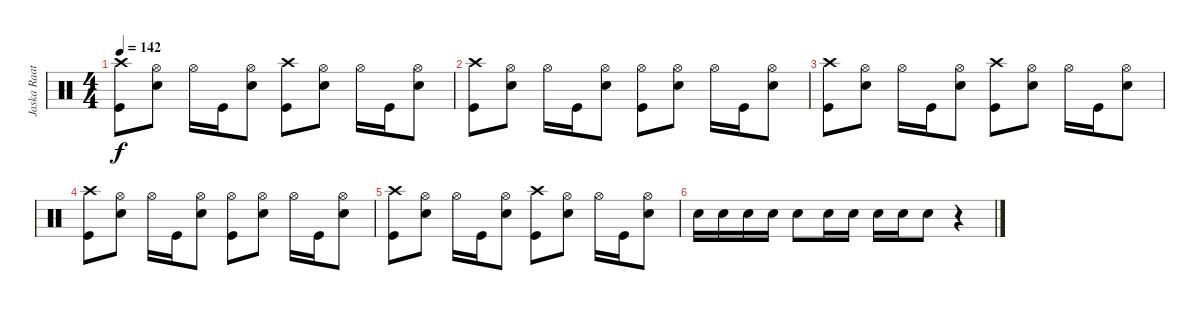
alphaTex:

\track ("Jaska Raatikainen" "Jaska Raat") {instrument percussion}
\staff {score}
\articulation defaults
\ts (4 4)
\tempo 142
\clef neutral
\ks c
("Crash high (hit)" "Kick (hit)").8{dy f} ("Hi-Hat (open)" "Snare (hit) 2").8 "Hi-Hat (open)".16 "Kick (hit)".16 ("Hi-Hat (open)" "Snare (hit) 2").8 ("Crash high (hit)" "Kick (hit)").8 ("Hi-Hat (open)" "Snare (hit) 2").8 "Hi-Hat (open)".16 "Kick (hit)".16 ("Hi-Hat (open)" "Snare (hit) 2").8 |
("Crash high (hit)" "Kick (hit)").8 ("Hi-Hat (open)" "Snare (hit) 2").8 "Hi-Hat (open)".16 "Kick (hit)".16 ("Hi-Hat (open)" "Snare (hit) 2").8 ("Hi-Hat (open)" "Kick (hit)").8 ("Hi-Hat (open)" "Snare (hit) 2").8 "Hi-Hat (open)".16 "Kick (hit)".16 ("Hi-Hat (open)" "Snare (hit) 2").8 |
("Crash high (hit)" "Kick (hit)").8 ("Hi-Hat (open)" "Snare (hit) 2").8 "Hi-Hat (open)".16 "Kick (hit)".16 ("Hi-Hat (open)" "Snare (hit) 2").8 ("Crash high (hit)" "Kick (hit)").8 ("Hi-Hat (open)" "Snare (hit) 2").8 "Hi-Hat (open)".16 "Kick (hit)".16 ("Hi-Hat (open)" "Snare (hit) 2").8 |
("Crash high (hit)" "Kick (hit)").8 ("Hi-Hat (open)" "Snare (hit) 2").8 "Hi-Hat (open)".16 "Kick (hit)".16 ("Hi-Hat (open)" "Snare (hit) 2").8 ("Hi-Hat (open)" "Kick (hit)").8 ("Hi-Hat (open)" "Snare (hit) 2").8 "Hi-Hat (open)".16 "Kick (hit)".16 ("Hi-Hat (open)" "Snare (hit) 2").8 |
("Crash high (hit)" "Kick (hit)").8 ("Hi-Hat (open)" "Snare (hit) 2").8 "Hi-Hat (open)".16 "Kick (hit)".16 ("Hi-Hat (open)" "Snare (hit) 2").8 ("Crash high (hit)" "Kick (hit)").8 ("Hi-Hat (open)" "Snare (hit) 2").8 "Hi-Hat (open)".16 "Kick (hit)".16 ("Hi-Hat (open)" "Snare (hit) 2").8 |
"Snare (hit) 2".16 "Snare (hit) 2".16 "Snare (hit) 2".16 "Snare (hit) 2".16 "Snare (hit) 2".8 "Snare (hit) 2".16 "Snare (hit) 2".16 "Snare (hit) 2".16 "Snare (hit) 2".16 "Snare (hit) 2".8 r.4
